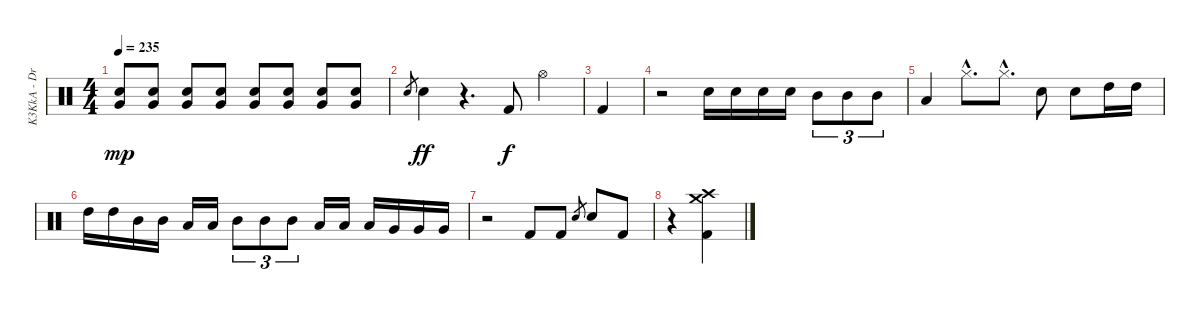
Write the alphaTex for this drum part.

\track ("K3KkA - Drums" "K3KkA - Dr") {instrument percussion}
\staff {score}
\articulation defaults
\ts (4 4)
\tempo 235
\clef neutral
\ks c
("Very Low Tom (hit)" "Snare (hit) 2").8{dy mp} ("Very Low Tom (hit)" "Snare (hit) 2").8 ("Very Low Tom (hit)" "Snare (hit) 2").8 ("Very Low Tom (hit)" "Snare (hit) 2").8 ("Very Low Tom (hit)" "Snare (hit) 2").8 ("Very Low Tom (hit)" "Snare (hit) 2").8 ("Very Low Tom (hit)" "Snare (hit) 2").8 ("Very Low Tom (hit)" "Snare (hit) 2").8 |
"Snare (hit) 2".8{gr} "Snare (hit) 2".4{dy ff} r.4{d} "Kick (hit) 2".8{dy f} "Hi-Hat (open)".4 |
"Kick (hit) 2".4 |
r.2 "Electric Snare (hit)".16 "Electric Snare (hit)".16 "Electric Snare (hit)".16 "Electric Snare (hit)".16 "Mid Tom (hit)".8{tu (3 2)} "Mid Tom (hit)".8{tu (3 2)} "Mid Tom (hit)".8{tu (3 2)} |
"Low Tom (hit)".4 "Hi-Hat (closed)"{hac}.8{d} "Hi-Hat (closed)"{hac}.8{d} "Electric Snare (hit)".8 "Electric Snare (hit)".8 "High Tom (hit)".16 "High Tom (hit)".16 |
"High Tom (hit)".16 "High Tom (hit)".16 "Mid Tom (hit)".16 "Mid Tom (hit)".16 "Low Tom (hit)".16 "Low Tom (hit)".16 "Mid Tom (hit)".8{tu (3 2)} "Mid Tom (hit)".8{tu (3 2)} "Mid Tom (hit)".8{tu (3 2)} "Low Tom (hit)".16 "Low Tom (hit)".16 "Low Tom (hit)".16 "Very Low Tom (hit)".16 "Very Low Tom (hit)".16 "Very Low Tom (hit)".16 |
r.2 "Kick (hit) 2".8 "Kick (hit) 2".8 "Electric Snare (hit)".8{gr} "Electric Snare (hit)".8 "Kick (hit) 2".8 |
r.4 ("Crash high (hit)" "Kick (hit) 2" "Crash medium (hit)").4
